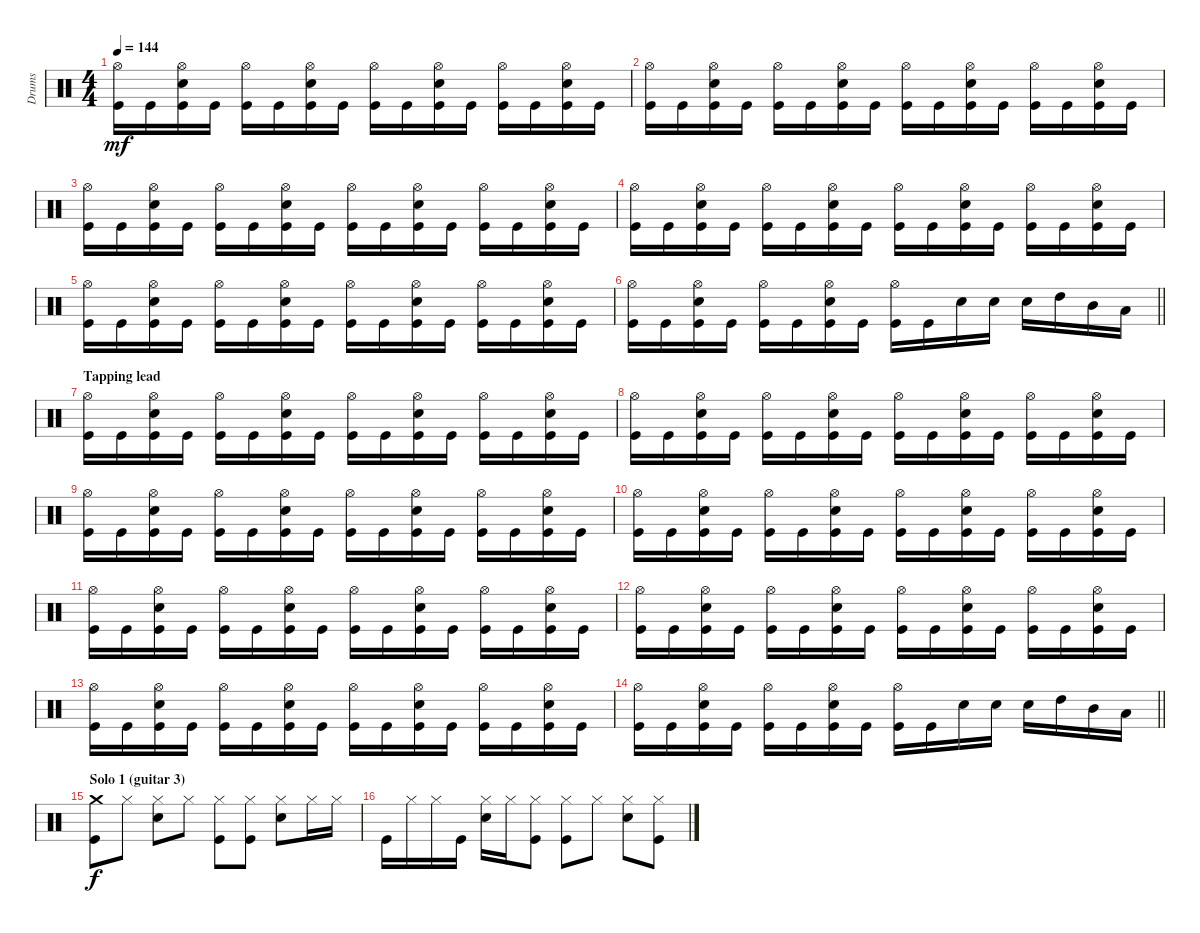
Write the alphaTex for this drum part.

\track ("Drums" "Drums") {instrument percussion}
\staff {score}
\articulation defaults
\ts (4 4)
\tempo 144
\clef neutral
\ks c
("Hi-Hat (open)" "Kick (hit)").16{dy mf} "Kick (hit)".16 ("Hi-Hat (open)" "Snare (hit) 2" "Kick (hit)").16 "Kick (hit)".16 ("Hi-Hat (open)" "Kick (hit)").16 "Kick (hit)".16 ("Hi-Hat (open)" "Snare (hit) 2" "Kick (hit)").16 "Kick (hit)".16 ("Hi-Hat (open)" "Kick (hit)").16 "Kick (hit)".16 ("Hi-Hat (open)" "Snare (hit) 2" "Kick (hit)").16 "Kick (hit)".16 ("Hi-Hat (open)" "Kick (hit)").16 "Kick (hit)".16 ("Hi-Hat (open)" "Snare (hit) 2" "Kick (hit)").16 "Kick (hit)".16 |
("Hi-Hat (open)" "Kick (hit)").16 "Kick (hit)".16 ("Hi-Hat (open)" "Snare (hit) 2" "Kick (hit)").16 "Kick (hit)".16 ("Hi-Hat (open)" "Kick (hit)").16 "Kick (hit)".16 ("Hi-Hat (open)" "Snare (hit) 2" "Kick (hit)").16 "Kick (hit)".16 ("Hi-Hat (open)" "Kick (hit)").16 "Kick (hit)".16 ("Hi-Hat (open)" "Snare (hit) 2" "Kick (hit)").16 "Kick (hit)".16 ("Hi-Hat (open)" "Kick (hit)").16 "Kick (hit)".16 ("Hi-Hat (open)" "Snare (hit) 2" "Kick (hit)").16 "Kick (hit)".16 |
("Hi-Hat (open)" "Kick (hit)").16 "Kick (hit)".16 ("Hi-Hat (open)" "Snare (hit) 2" "Kick (hit)").16 "Kick (hit)".16 ("Hi-Hat (open)" "Kick (hit)").16 "Kick (hit)".16 ("Hi-Hat (open)" "Snare (hit) 2" "Kick (hit)").16 "Kick (hit)".16 ("Hi-Hat (open)" "Kick (hit)").16 "Kick (hit)".16 ("Hi-Hat (open)" "Snare (hit) 2" "Kick (hit)").16 "Kick (hit)".16 ("Hi-Hat (open)" "Kick (hit)").16 "Kick (hit)".16 ("Hi-Hat (open)" "Snare (hit) 2" "Kick (hit)").16 "Kick (hit)".16 |
("Hi-Hat (open)" "Kick (hit)").16 "Kick (hit)".16 ("Hi-Hat (open)" "Snare (hit) 2" "Kick (hit)").16 "Kick (hit)".16 ("Hi-Hat (open)" "Kick (hit)").16 "Kick (hit)".16 ("Hi-Hat (open)" "Snare (hit) 2" "Kick (hit)").16 "Kick (hit)".16 ("Hi-Hat (open)" "Kick (hit)").16 "Kick (hit)".16 ("Hi-Hat (open)" "Snare (hit) 2" "Kick (hit)").16 "Kick (hit)".16 ("Hi-Hat (open)" "Kick (hit)").16 "Kick (hit)".16 ("Hi-Hat (open)" "Snare (hit) 2" "Kick (hit)").16 "Kick (hit)".16 |
("Hi-Hat (open)" "Kick (hit)").16 "Kick (hit)".16 ("Hi-Hat (open)" "Snare (hit) 2" "Kick (hit)").16 "Kick (hit)".16 ("Hi-Hat (open)" "Kick (hit)").16 "Kick (hit)".16 ("Hi-Hat (open)" "Snare (hit) 2" "Kick (hit)").16 "Kick (hit)".16 ("Hi-Hat (open)" "Kick (hit)").16 "Kick (hit)".16 ("Hi-Hat (open)" "Snare (hit) 2" "Kick (hit)").16 "Kick (hit)".16 ("Hi-Hat (open)" "Kick (hit)").16 "Kick (hit)".16 ("Hi-Hat (open)" "Snare (hit) 2" "Kick (hit)").16 "Kick (hit)".16 |
\barLineRight lightlight
("Hi-Hat (open)" "Kick (hit)").16 "Kick (hit)".16 ("Hi-Hat (open)" "Snare (hit) 2" "Kick (hit)").16 "Kick (hit)".16 ("Hi-Hat (open)" "Kick (hit)").16 "Kick (hit)".16 ("Hi-Hat (open)" "Snare (hit) 2" "Kick (hit)").16 "Kick (hit)".16 ("Hi-Hat (open)" "Kick (hit)").16 "Kick (hit)".16 "Snare (hit) 2".16 "Snare (hit) 2".16 "Snare (hit) 2".16 "High Tom (hit)".16 "Mid Tom (hit)".16 "Low Tom (hit)".16 |
\section ("" "Tapping lead")
("Hi-Hat (open)" "Kick (hit)").16 "Kick (hit)".16 ("Hi-Hat (open)" "Snare (hit) 2" "Kick (hit)").16 "Kick (hit)".16 ("Hi-Hat (open)" "Kick (hit)").16 "Kick (hit)".16 ("Hi-Hat (open)" "Snare (hit) 2" "Kick (hit)").16 "Kick (hit)".16 ("Hi-Hat (open)" "Kick (hit)").16 "Kick (hit)".16 ("Hi-Hat (open)" "Snare (hit) 2" "Kick (hit)").16 "Kick (hit)".16 ("Hi-Hat (open)" "Kick (hit)").16 "Kick (hit)".16 ("Hi-Hat (open)" "Snare (hit) 2" "Kick (hit)").16 "Kick (hit)".16 |
("Hi-Hat (open)" "Kick (hit)").16 "Kick (hit)".16 ("Hi-Hat (open)" "Snare (hit) 2" "Kick (hit)").16 "Kick (hit)".16 ("Hi-Hat (open)" "Kick (hit)").16 "Kick (hit)".16 ("Hi-Hat (open)" "Snare (hit) 2" "Kick (hit)").16 "Kick (hit)".16 ("Hi-Hat (open)" "Kick (hit)").16 "Kick (hit)".16 ("Hi-Hat (open)" "Snare (hit) 2" "Kick (hit)").16 "Kick (hit)".16 ("Hi-Hat (open)" "Kick (hit)").16 "Kick (hit)".16 ("Hi-Hat (open)" "Snare (hit) 2" "Kick (hit)").16 "Kick (hit)".16 |
("Hi-Hat (open)" "Kick (hit)").16 "Kick (hit)".16 ("Hi-Hat (open)" "Snare (hit) 2" "Kick (hit)").16 "Kick (hit)".16 ("Hi-Hat (open)" "Kick (hit)").16 "Kick (hit)".16 ("Hi-Hat (open)" "Snare (hit) 2" "Kick (hit)").16 "Kick (hit)".16 ("Hi-Hat (open)" "Kick (hit)").16 "Kick (hit)".16 ("Hi-Hat (open)" "Snare (hit) 2" "Kick (hit)").16 "Kick (hit)".16 ("Hi-Hat (open)" "Kick (hit)").16 "Kick (hit)".16 ("Hi-Hat (open)" "Snare (hit) 2" "Kick (hit)").16 "Kick (hit)".16 |
("Hi-Hat (open)" "Kick (hit)").16 "Kick (hit)".16 ("Hi-Hat (open)" "Snare (hit) 2" "Kick (hit)").16 "Kick (hit)".16 ("Hi-Hat (open)" "Kick (hit)").16 "Kick (hit)".16 ("Hi-Hat (open)" "Snare (hit) 2" "Kick (hit)").16 "Kick (hit)".16 ("Hi-Hat (open)" "Kick (hit)").16 "Kick (hit)".16 ("Hi-Hat (open)" "Snare (hit) 2" "Kick (hit)").16 "Kick (hit)".16 ("Hi-Hat (open)" "Kick (hit)").16 "Kick (hit)".16 ("Hi-Hat (open)" "Snare (hit) 2" "Kick (hit)").16 "Kick (hit)".16 |
("Hi-Hat (open)" "Kick (hit)").16 "Kick (hit)".16 ("Hi-Hat (open)" "Snare (hit) 2" "Kick (hit)").16 "Kick (hit)".16 ("Hi-Hat (open)" "Kick (hit)").16 "Kick (hit)".16 ("Hi-Hat (open)" "Snare (hit) 2" "Kick (hit)").16 "Kick (hit)".16 ("Hi-Hat (open)" "Kick (hit)").16 "Kick (hit)".16 ("Hi-Hat (open)" "Snare (hit) 2" "Kick (hit)").16 "Kick (hit)".16 ("Hi-Hat (open)" "Kick (hit)").16 "Kick (hit)".16 ("Hi-Hat (open)" "Snare (hit) 2" "Kick (hit)").16 "Kick (hit)".16 |
("Hi-Hat (open)" "Kick (hit)").16 "Kick (hit)".16 ("Hi-Hat (open)" "Snare (hit) 2" "Kick (hit)").16 "Kick (hit)".16 ("Hi-Hat (open)" "Kick (hit)").16 "Kick (hit)".16 ("Hi-Hat (open)" "Snare (hit) 2" "Kick (hit)").16 "Kick (hit)".16 ("Hi-Hat (open)" "Kick (hit)").16 "Kick (hit)".16 ("Hi-Hat (open)" "Snare (hit) 2" "Kick (hit)").16 "Kick (hit)".16 ("Hi-Hat (open)" "Kick (hit)").16 "Kick (hit)".16 ("Hi-Hat (open)" "Snare (hit) 2" "Kick (hit)").16 "Kick (hit)".16 |
("Hi-Hat (open)" "Kick (hit)").16 "Kick (hit)".16 ("Hi-Hat (open)" "Snare (hit) 2" "Kick (hit)").16 "Kick (hit)".16 ("Hi-Hat (open)" "Kick (hit)").16 "Kick (hit)".16 ("Hi-Hat (open)" "Snare (hit) 2" "Kick (hit)").16 "Kick (hit)".16 ("Hi-Hat (open)" "Kick (hit)").16 "Kick (hit)".16 ("Hi-Hat (open)" "Snare (hit) 2" "Kick (hit)").16 "Kick (hit)".16 ("Hi-Hat (open)" "Kick (hit)").16 "Kick (hit)".16 ("Hi-Hat (open)" "Snare (hit) 2" "Kick (hit)").16 "Kick (hit)".16 |
\barLineRight lightlight
("Hi-Hat (open)" "Kick (hit)").16 "Kick (hit)".16 ("Hi-Hat (open)" "Snare (hit) 2" "Kick (hit)").16 "Kick (hit)".16 ("Hi-Hat (open)" "Kick (hit)").16 "Kick (hit)".16 ("Hi-Hat (open)" "Snare (hit) 2" "Kick (hit)").16 "Kick (hit)".16 ("Hi-Hat (open)" "Kick (hit)").16 "Kick (hit)".16 "Snare (hit) 2".16 "Snare (hit) 2".16 "Snare (hit) 2".16 "High Tom (hit)".16 "Mid Tom (hit)".16 "Low Tom (hit)".16 |
\section ("" "Solo 1 (guitar 3)")
("Crash medium (hit)" "Kick (hit)").8{dy f} "Hi-Hat (closed)".8 ("Hi-Hat (closed)" "Snare (hit) 2").8 "Hi-Hat (closed)".8 ("Hi-Hat (closed)" "Kick (hit)").8 ("Hi-Hat (closed)" "Kick (hit)").8 ("Hi-Hat (closed)" "Snare (hit) 2").8 "Hi-Hat (closed)".16 "Hi-Hat (closed)".16 |
"Kick (hit)".16 "Hi-Hat (closed)".16 "Hi-Hat (closed)".16 "Kick (hit)".16 ("Hi-Hat (closed)" "Snare (hit) 2").16 "Hi-Hat (closed)".16 ("Hi-Hat (closed)" "Kick (hit)").8 ("Hi-Hat (closed)" "Kick (hit)").8 "Hi-Hat (closed)".8 ("Hi-Hat (closed)" "Snare (hit) 2").8 ("Hi-Hat (closed)" "Kick (hit)").8
